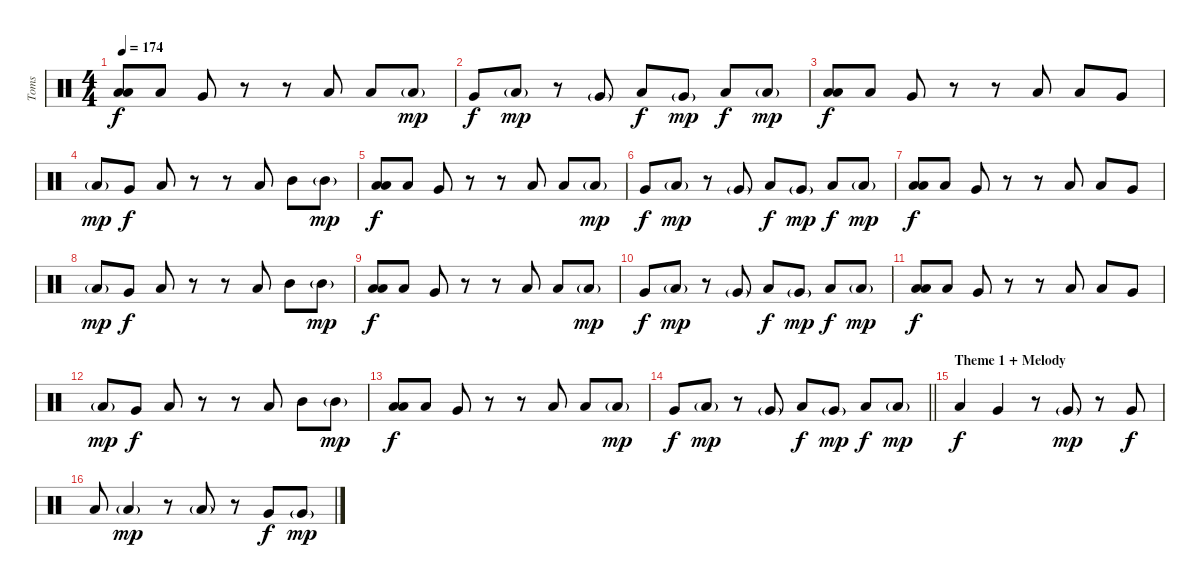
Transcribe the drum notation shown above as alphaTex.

\track ("Toms" "Toms") {instrument percussion}
\staff {score}
\articulation defaults
\ts (4 4)
\tempo 174
\clef neutral
\ks c
("Low Tom (hit)" "Low Floor Tom (hit)").8{dy f} "Low Tom (hit)".8 "Very Low Tom (hit)".8 r.8 r.8 "Low Floor Tom (hit)".8 "Low Floor Tom (hit)".8 "Low Floor Tom (hit)"{g}.8{dy mp} |
"Very Low Tom (hit)".8{dy f} "Low Floor Tom (hit)"{g}.8{dy mp} r.8 "Very Low Tom (hit)"{g}.8 "Low Tom (hit)".8{dy f} "Very Low Tom (hit)"{g}.8{dy mp} "Low Tom (hit)".8{dy f} "Low Tom (hit)"{g}.8{dy mp} |
("Low Tom (hit)" "Low Floor Tom (hit)").8{dy f} "Low Tom (hit)".8 "Very Low Tom (hit)".8 r.8 r.8 "Low Floor Tom (hit)".8 "Low Floor Tom (hit)".8 "Very Low Tom (hit)".8 |
"Low Tom (hit)"{g}.8{dy mp} "Very Low Tom (hit)".8{dy f} "Low Floor Tom (hit)".8 r.8 r.8 "Low Floor Tom (hit)".8 "Mid Tom (hit)".8 "Mid Tom (hit)"{g}.8{dy mp} |
("Low Tom (hit)" "Low Floor Tom (hit)").8{dy f} "Low Tom (hit)".8 "Very Low Tom (hit)".8 r.8 r.8 "Low Floor Tom (hit)".8 "Low Floor Tom (hit)".8 "Low Floor Tom (hit)"{g}.8{dy mp} |
"Very Low Tom (hit)".8{dy f} "Low Floor Tom (hit)"{g}.8{dy mp} r.8 "Very Low Tom (hit)"{g}.8 "Low Tom (hit)".8{dy f} "Very Low Tom (hit)"{g}.8{dy mp} "Low Tom (hit)".8{dy f} "Low Tom (hit)"{g}.8{dy mp} |
("Low Tom (hit)" "Low Floor Tom (hit)").8{dy f} "Low Tom (hit)".8 "Very Low Tom (hit)".8 r.8 r.8 "Low Floor Tom (hit)".8 "Low Floor Tom (hit)".8 "Very Low Tom (hit)".8 |
"Low Tom (hit)"{g}.8{dy mp} "Very Low Tom (hit)".8{dy f} "Low Floor Tom (hit)".8 r.8 r.8 "Low Floor Tom (hit)".8 "Mid Tom (hit)".8 "Mid Tom (hit)"{g}.8{dy mp} |
("Low Tom (hit)" "Low Floor Tom (hit)").8{dy f} "Low Tom (hit)".8 "Very Low Tom (hit)".8 r.8 r.8 "Low Floor Tom (hit)".8 "Low Floor Tom (hit)".8 "Low Floor Tom (hit)"{g}.8{dy mp} |
"Very Low Tom (hit)".8{dy f} "Low Floor Tom (hit)"{g}.8{dy mp} r.8 "Very Low Tom (hit)"{g}.8 "Low Tom (hit)".8{dy f} "Very Low Tom (hit)"{g}.8{dy mp} "Low Tom (hit)".8{dy f} "Low Tom (hit)"{g}.8{dy mp} |
("Low Tom (hit)" "Low Floor Tom (hit)").8{dy f} "Low Tom (hit)".8 "Very Low Tom (hit)".8 r.8 r.8 "Low Floor Tom (hit)".8 "Low Floor Tom (hit)".8 "Very Low Tom (hit)".8 |
"Low Tom (hit)"{g}.8{dy mp} "Very Low Tom (hit)".8{dy f} "Low Floor Tom (hit)".8 r.8 r.8 "Low Floor Tom (hit)".8 "Mid Tom (hit)".8 "Mid Tom (hit)"{g}.8{dy mp} |
("Low Tom (hit)" "Low Floor Tom (hit)").8{dy f} "Low Tom (hit)".8 "Very Low Tom (hit)".8 r.8 r.8 "Low Floor Tom (hit)".8 "Low Floor Tom (hit)".8 "Low Floor Tom (hit)"{g}.8{dy mp} |
\barLineRight lightlight "Very Low Tom (hit)".8{dy f} "Low Floor Tom (hit)"{g}.8{dy mp}
r.8 "Very Low Tom (hit)"{g}.8 "Low Tom (hit)".8{dy f} "Very Low Tom (hit)"{g}.8{dy mp} "Low Tom (hit)".8{dy f} "Low Tom (hit)"{g}.8{dy mp} |
\section ("" "Theme 1 + Melody")
"Low Tom (hit)".4{dy f} "Very Low Tom (hit)".4 r.8 "Very Low Tom (hit)"{g}.8{dy mp} r.8 "Very Low Tom (hit)".8{dy f} |
"Low Tom (hit)".8 "Low Floor Tom (hit)"{g}.4{dy mp} r.8 "Low Floor Tom (hit)"{g}.8 r.8 "Very Low Tom (hit)".8{dy f} "Very Low Tom (hit)"{g}.8{dy mp}
